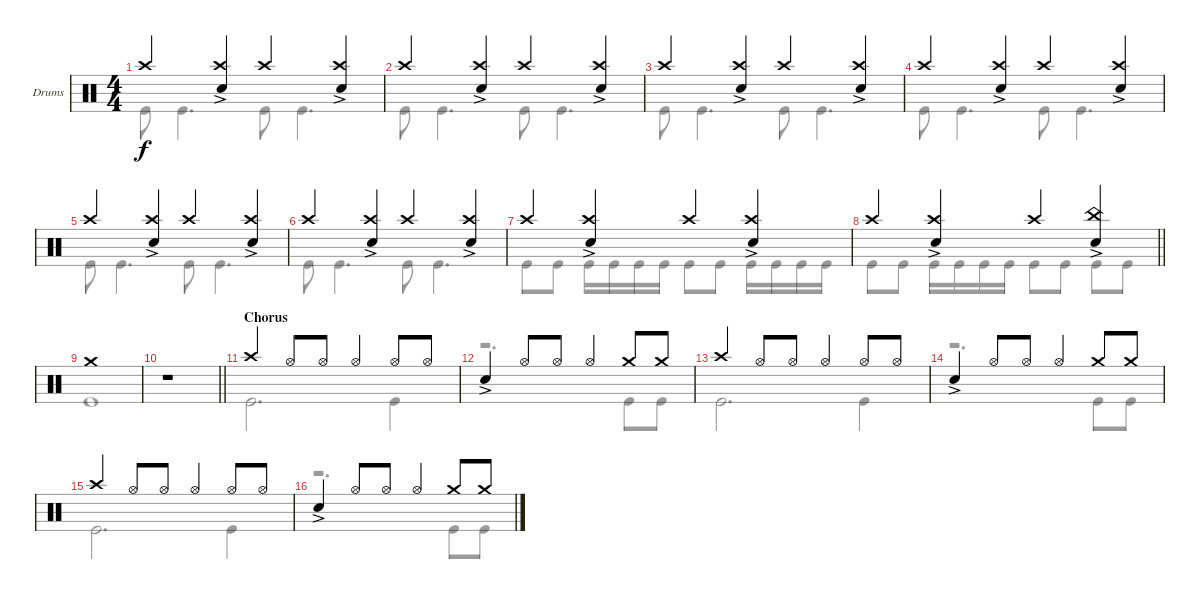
\bracketExtendMode groupsimilarinstruments
\firstSystemTrackNameOrientation horizontal
\otherSystemsTrackNameOrientation horizontal
\track ("Drumkit" "Drums") {instrument percussion}
\staff {score}
\articulation defaults
\voice
\ts (4 4)
\tempo (184 "Double Time" hide)
\clef neutral
\ks c "Crash high (hit)".4{dy f}
("Crash high (hit)" "Snare (hit) 2"{ac}).4 "Crash high (hit)".4 ("Crash high (hit)" "Snare (hit) 2"{ac}).4 |
"Crash high (hit)".4 ("Crash high (hit)" "Snare (hit) 2"{ac}).4 "Crash high (hit)".4 ("Crash high (hit)" "Snare (hit) 2"{ac}).4 |
"Crash high (hit)".4 ("Crash high (hit)" "Snare (hit) 2"{ac}).4 "Crash high (hit)".4 ("Crash high (hit)" "Snare (hit) 2"{ac}).4 |
"Crash high (hit)".4 ("Crash high (hit)" "Snare (hit) 2"{ac}).4 "Crash high (hit)".4 ("Crash high (hit)" "Snare (hit) 2"{ac}).4 |
"Crash high (hit)".4 ("Crash high (hit)" "Snare (hit) 2"{ac}).4 "Crash high (hit)".4 ("Crash high (hit)" "Snare (hit) 2"{ac}).4 |
"Crash high (hit)".4 ("Crash high (hit)" "Snare (hit) 2"{ac}).4 "Crash high (hit)".4 ("Crash high (hit)" "Snare (hit) 2"{ac}).4 |
"Crash high (hit)".4 ("Crash high (hit)" "Snare (hit) 2"{ac}).4 "Crash high (hit)".4 ("Crash high (hit)" "Snare (hit) 2"{ac}).4 |
\barLineRight lightlight "Crash high (hit)".4
("Crash high (hit)" "Snare (hit) 2"{ac}).4 "Crash high (hit)".4 ("China (hit)" "Snare (hit) 2"{ac}).4 |
\section ("" "")
"Crash medium (hit)".1 |
\tempo (184 "Moderately Slow Rock" 1 hide)
\barLineRight lightlight
r.1 |
\section ("" "Chorus")
\tempo (184 "Moderately Slow Rock" hide)
"Crash high (hit)".4 "Hi-Hat (open)".8 "Hi-Hat (open)".8 "Hi-Hat (open)".4 "Hi-Hat (open)".8 "Hi-Hat (open)".8 |
"Snare (hit) 2"{ac}.4 "Hi-Hat (open)".8 "Hi-Hat (open)".8 "Hi-Hat (open)".4 "Crash medium (hit)".8 "Crash medium (hit)".8 |
"Crash high (hit)".4 "Hi-Hat (open)".8 "Hi-Hat (open)".8 "Hi-Hat (open)".4 "Hi-Hat (open)".8 "Hi-Hat (open)".8 |
"Snare (hit) 2"{ac}.4 "Hi-Hat (open)".8 "Hi-Hat (open)".8 "Hi-Hat (open)".4 "Crash medium (hit)".8 "Crash medium (hit)".8 |
"Crash high (hit)".4 "Hi-Hat (open)".8 "Hi-Hat (open)".8 "Hi-Hat (open)".4 "Hi-Hat (open)".8 "Hi-Hat (open)".8 |
"Snare (hit) 2"{ac}.4 "Hi-Hat (open)".8 "Hi-Hat (open)".8 "Hi-Hat (open)".4 "Crash medium (hit)".8 "Crash medium (hit)".8
\voice
\clef neutral
\ottava regular
\simile none
\ks c "Kick (hit)".8{dy f} "Kick (hit)".4{d} "Kick (hit)".8 "Kick (hit)".4{d}
|
"Kick (hit)".8 "Kick (hit)".4{d} "Kick (hit)".8 "Kick (hit)".4{d} |
"Kick (hit)".8 "Kick (hit)".4{d} "Kick (hit)".8 "Kick (hit)".4{d} |
"Kick (hit)".8 "Kick (hit)".4{d} "Kick (hit)".8 "Kick (hit)".4{d} |
"Kick (hit)".8 "Kick (hit)".4{d} "Kick (hit)".8 "Kick (hit)".4{d} |
"Kick (hit)".8 "Kick (hit)".4{d} "Kick (hit)".8 "Kick (hit)".4{d} |
"Kick (hit)".8 "Kick (hit)".8 "Kick (hit)".16 "Kick (hit)".16 "Kick (hit)".16 "Kick (hit)".16 "Kick (hit)".8 "Kick (hit)".8 "Kick (hit)".16 "Kick (hit)".16 "Kick (hit)".16 "Kick (hit)".16 |
\barLineRight lightlight "Kick (hit)".8 "Kick (hit)".8 "Kick (hit)".16 "Kick (hit)".16 "Kick (hit)".16 "Kick (hit)".16 "Kick (hit)".8 "Kick (hit)".8 "Kick (hit)".8 "Kick (hit)".8
|
"Kick (hit)".1 |
\barLineRight lightlight
r.1 |
"Kick (hit)".2{d} "Kick (hit)".4 |
r.2{d} "Kick (hit)".8 "Kick (hit)".8 |
"Kick (hit)".2{d} "Kick (hit)".4 |
r.2{d} "Kick (hit)".8 "Kick (hit)".8 |
"Kick (hit)".2{d} "Kick (hit)".4 |
r.2{d} "Kick (hit)".8 "Kick (hit)".8
